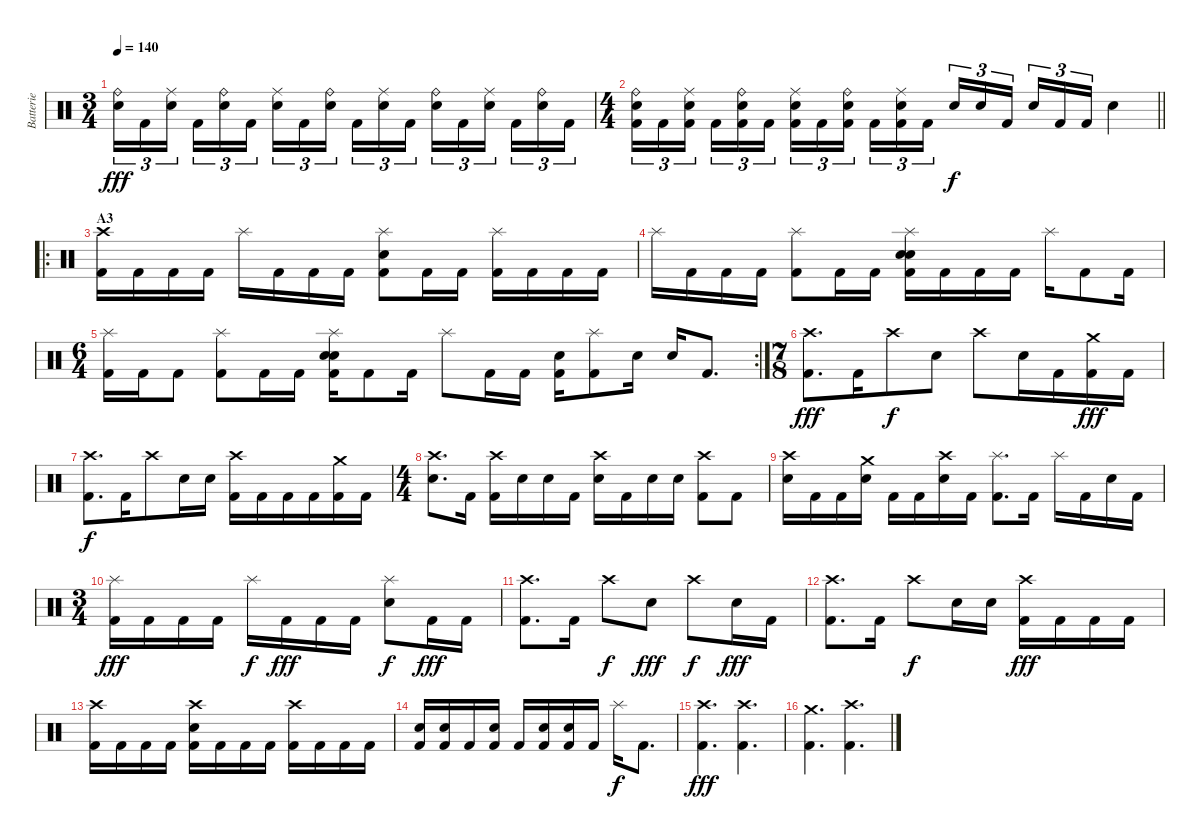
\track ("Batterie" "Batterie") {instrument percussion}
\staff {score}
\articulation defaults
\ts (3 4)
\tempo 140
\clef neutral
\ks c
("Ride (bell)" "Electric Snare (hit)").16{tu (3 2) dy fff} "Kick (hit) 2".16{tu (3 2)} ("Ride (middle)" "Electric Snare (hit)").16{tu (3 2) beam splitsecondary} "Kick (hit) 2".16{tu (3 2)} ("Ride (bell)" "Electric Snare (hit)").16{tu (3 2)} "Kick (hit) 2".16{tu (3 2)} ("Ride (middle)" "Electric Snare (hit)").16{tu (3 2)} "Kick (hit) 2".16{tu (3 2)} ("Ride (bell)" "Electric Snare (hit)").16{tu (3 2) beam splitsecondary} "Kick (hit) 2".16{tu (3 2)} ("Ride (middle)" "Electric Snare (hit)").16{tu (3 2)} "Kick (hit) 2".16{tu (3 2)} ("Ride (bell)" "Electric Snare (hit)").16{tu (3 2)} "Kick (hit) 2".16{tu (3 2)} ("Ride (middle)" "Electric Snare (hit)").16{tu (3 2) beam splitsecondary} "Kick (hit) 2".16{tu (3 2)} ("Ride (bell)" "Electric Snare (hit)").16{tu (3 2)} "Kick (hit) 2".16{tu (3 2)} |
\ts (4 4)
\barLineRight lightlight
("Ride (bell)" "Electric Snare (hit)" "Kick (hit) 2").16{tu (3 2)} "Kick (hit) 2".16{tu (3 2)} ("Ride (middle)" "Electric Snare (hit)" "Kick (hit) 2").16{tu (3 2) beam splitsecondary} "Kick (hit) 2".16{tu (3 2)} ("Ride (bell)" "Electric Snare (hit)" "Kick (hit) 2").16{tu (3 2)} "Kick (hit) 2".16{tu (3 2)} ("Ride (middle)" "Electric Snare (hit)" "Kick (hit) 2").16{tu (3 2)} "Kick (hit) 2".16{tu (3 2)} ("Ride (bell)" "Electric Snare (hit)" "Kick (hit) 2").16{tu (3 2) beam splitsecondary} "Kick (hit) 2".16{tu (3 2)} ("Ride (middle)" "Electric Snare (hit)" "Kick (hit) 2").16{tu (3 2)} "Kick (hit) 2".16{tu (3 2)} "Electric Snare (hit)".16{tu (3 2) dy f} "Electric Snare (hit)".16{tu (3 2)} "Kick (hit) 2".16{tu (3 2) beam splitsecondary} "Electric Snare (hit)".16{tu (3 2)} "Kick (hit) 2".16{tu (3 2)} "Kick (hit) 2".16{tu (3 2)} "Electric Snare (hit)".4 |
\ro
\section ("" "A3")
("Crash high (hit)" "Kick (hit) 2").16 "Kick (hit) 2".16 "Kick (hit) 2".16 "Kick (hit) 2".16 "Splash (hit)".16 "Kick (hit) 2".16 "Kick (hit) 2".16 "Kick (hit) 2".16 ("Splash (hit)" "Electric Snare (hit)" "Kick (hit) 2").8 "Kick (hit) 2".16 "Kick (hit) 2".16 ("Splash (hit)" "Kick (hit) 2").16 "Kick (hit) 2".16 "Kick (hit) 2".16 "Kick (hit) 2".16 |
"Splash (hit)".16 "Kick (hit) 2".16 "Kick (hit) 2".16 "Kick (hit) 2".16 ("Splash (hit)" "Kick (hit) 2").8 "Kick (hit) 2".16 "Kick (hit) 2".16 ("Splash (hit)" "Electric Snare (hit)" "Electric Snare (hit)" "Kick (hit) 2").16 "Kick (hit) 2".16 "Kick (hit) 2".16 "Kick (hit) 2".16 "Splash (hit)".16 "Kick (hit) 2".8 "Kick (hit) 2".16 |
\rc 2
\ts (6 4)
("Splash (hit)" "Kick (hit) 2").16 "Kick (hit) 2".16 "Kick (hit) 2".8 ("Splash (hit)" "Kick (hit) 2").8 "Kick (hit) 2".16 "Kick (hit) 2".16 ("Splash (hit)" "Electric Snare (hit)" "Electric Snare (hit)" "Kick (hit) 2").16 "Kick (hit) 2".8 "Kick (hit) 2".16 "Splash (hit)".8 "Kick (hit) 2".16 "Kick (hit) 2".16 ("Electric Snare (hit)" "Kick (hit) 2").16 ("Splash (hit)" "Kick (hit) 2").8 "Electric Snare (hit)".16 "Electric Snare (hit)".16 "Kick (hit) 2".8{d} |
\ts (7 8)
("Crash high (hit)" "Kick (hit) 2").8{d dy fff} "Kick (hit) 2".16 "Crash high (hit)".8{dy f} "Electric Snare (hit)".8 "Crash high (hit)".8 "Electric Snare (hit)".16 "Kick (hit) 2".16 ("Crash medium (hit)" "Kick (hit) 2").16{dy fff} "Kick (hit) 2".16 |
("Crash high (hit)" "Kick (hit) 2").8{d dy f} "Kick (hit) 2".16 "Crash high (hit)".8 "Electric Snare (hit)".16 "Electric Snare (hit)".16 ("Crash high (hit)" "Kick (hit) 2").16 "Kick (hit) 2".16 "Kick (hit) 2".16 "Kick (hit) 2".16 ("Crash medium (hit)" "Kick (hit) 2").16 "Kick (hit) 2".16 |
\ts (4 4)
("Crash high (hit)" "Electric Snare (hit)").8{d} "Kick (hit) 2".16 ("Crash high (hit)" "Kick (hit) 2").16 "Electric Snare (hit)".16 "Electric Snare (hit)".16 "Kick (hit) 2".16 ("Crash high (hit)" "Electric Snare (hit)").16 "Kick (hit) 2".16 "Electric Snare (hit)".16 "Electric Snare (hit)".16 ("Crash high (hit)" "Kick (hit) 2").8 "Kick (hit) 2".8 |
("Crash high (hit)" "Electric Snare (hit)").16 "Kick (hit) 2".16 "Kick (hit) 2".16 ("Crash medium (hit)" "Electric Snare (hit)").16 "Kick (hit) 2".16 "Kick (hit) 2".16 ("Crash high (hit)" "Electric Snare (hit)").16 "Kick (hit) 2".16 ("Splash (hit)" "Kick (hit) 2").8{d} "Kick (hit) 2".16 "Splash (hit)".16 "Kick (hit) 2".16 "Electric Snare (hit)".16 "Kick (hit) 2".16 |
\ts (3 4)
("Splash (hit)" "Kick (hit) 2").16{dy fff} "Kick (hit) 2".16 "Kick (hit) 2".16 "Kick (hit) 2".16 "Splash (hit)".16{dy f} "Kick (hit) 2".16{dy fff} "Kick (hit) 2".16 "Kick (hit) 2".16 ("Splash (hit)" "Electric Snare (hit)").8{dy f} "Kick (hit) 2".16{dy fff} "Kick (hit) 2".16 |
("Crash high (hit)" "Kick (hit) 2").8{d} "Kick (hit) 2".16 "Crash high (hit)".8{dy f} "Electric Snare (hit)".8{dy fff} "Crash high (hit)".8{dy f} "Electric Snare (hit)".16{dy fff} "Kick (hit) 2".16 |
("Crash high (hit)" "Kick (hit) 2").8{d} "Kick (hit) 2".16 "Crash high (hit)".8{dy f} "Electric Snare (hit)".16 "Electric Snare (hit)".16 ("Crash high (hit)" "Kick (hit) 2").16{dy fff} "Kick (hit) 2".16 "Kick (hit) 2".16 "Kick (hit) 2".16 |
("Crash high (hit)" "Kick (hit) 2").16 "Kick (hit) 2".16 "Kick (hit) 2".16 "Kick (hit) 2".16 ("Crash high (hit)" "Electric Snare (hit)" "Kick (hit) 2").16 "Kick (hit) 2".16 "Kick (hit) 2".16 "Kick (hit) 2".16 ("Crash high (hit)" "Kick (hit) 2").16 "Kick (hit) 2".16 "Kick (hit) 2".16 "Kick (hit) 2".16 |
("Electric Snare (hit)" "Kick (hit) 2").16 ("Electric Snare (hit)" "Kick (hit) 2").16 "Kick (hit) 2".16 ("Electric Snare (hit)" "Kick (hit) 2").16 "Kick (hit) 2".16 ("Electric Snare (hit)" "Kick (hit) 2").16 ("Electric Snare (hit)" "Kick (hit) 2").16 "Kick (hit) 2".16 "Splash (hit)".16{dy f} "Kick (hit) 2".8{d} |
("Crash high (hit)" "Kick (hit) 2").4{d dy fff} ("Crash high (hit)" "Kick (hit) 2").4{d} |
("Crash medium (hit)" "Kick (hit) 2").4{d} ("Crash high (hit)" "Kick (hit) 2").4{d}
